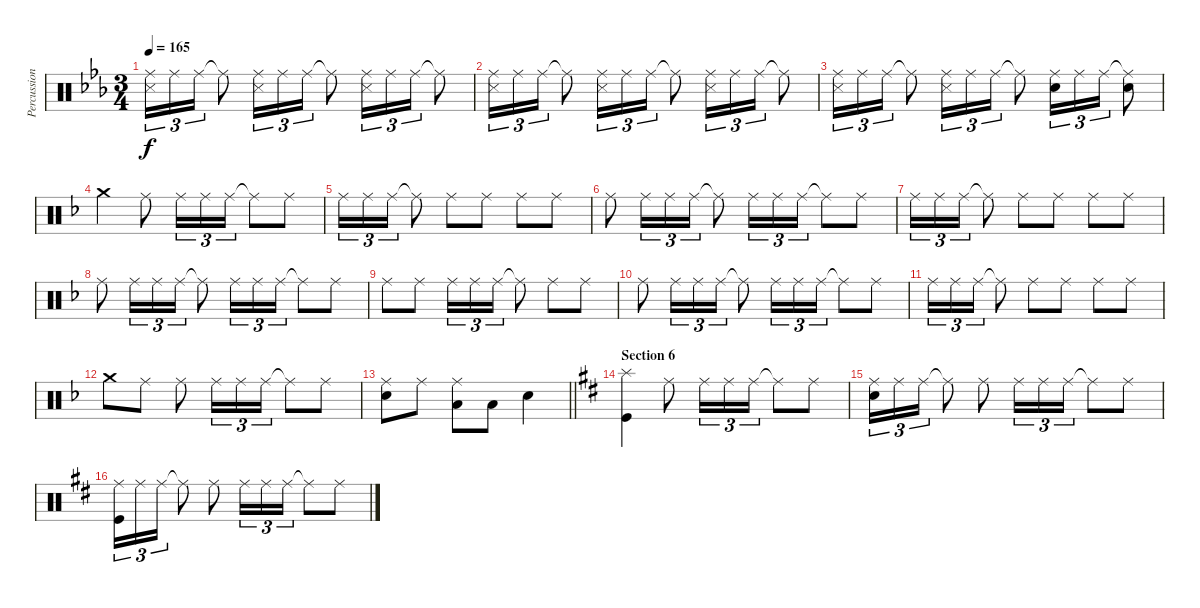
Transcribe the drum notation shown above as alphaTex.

\track ("Percussion" "Percussion") {instrument percussion}
\staff {score}
\articulation defaults
\ts (3 4)
\tempo 165
\clef neutral
\ks eb
("Ride (middle)" "Snare (side stick) 3").16{tu (3 2) dy f} "Ride (middle)".16{tu (3 2)} "Ride (middle)".16{tu (3 2)} "Ride (middle)"{t}.8 ("Ride (middle)" "Snare (side stick) 3").16{tu (3 2)} "Ride (middle)".16{tu (3 2)} "Ride (middle)".16{tu (3 2)} "Ride (middle)"{t}.8 ("Ride (middle)" "Snare (side stick) 3").16{tu (3 2)} "Ride (middle)".16{tu (3 2)} "Ride (middle)".16{tu (3 2)} "Ride (middle)"{t}.8 |
("Ride (middle)" "Snare (side stick) 3").16{tu (3 2)} "Ride (middle)".16{tu (3 2)} "Ride (middle)".16{tu (3 2)} "Ride (middle)"{t}.8 ("Ride (middle)" "Snare (side stick) 3").16{tu (3 2)} "Ride (middle)".16{tu (3 2)} "Ride (middle)".16{tu (3 2)} "Ride (middle)"{t}.8 ("Ride (middle)" "Snare (side stick) 3").16{tu (3 2)} "Ride (middle)".16{tu (3 2)} "Ride (middle)".16{tu (3 2)} "Ride (middle)"{t}.8 |
("Ride (middle)" "Snare (side stick) 3").16{tu (3 2)} "Ride (middle)".16{tu (3 2)} "Ride (middle)".16{tu (3 2)} "Ride (middle)"{t}.8 ("Ride (middle)" "Snare (side stick) 3").16{tu (3 2)} "Ride (middle)".16{tu (3 2)} "Ride (middle)".16{tu (3 2)} "Ride (middle)"{t}.8 ("Ride (middle)" "Snare (hit) 2").16{tu (3 2)} "Ride (middle)".16{tu (3 2)} "Ride (middle)".16{tu (3 2)} ("Ride (middle)"{t} "Snare (hit) 2").8 |
\ks f "Crash medium (hit)".4 "Ride (middle)".8 "Ride (middle)".16{tu (3 2)} "Ride (middle)".16{tu (3 2)} "Ride (middle)".16{tu (3 2)} "Ride (middle)"{t}.8 "Ride (middle)".8
|
"Ride (middle)".16{tu (3 2)} "Ride (middle)".16{tu (3 2)} "Ride (middle)".16{tu (3 2)} "Ride (middle)"{t}.8 "Ride (middle)".8 "Ride (middle)".8 "Ride (middle)".8 "Ride (middle)".8 |
"Ride (middle)".8 "Ride (middle)".16{tu (3 2)} "Ride (middle)".16{tu (3 2)} "Ride (middle)".16{tu (3 2)} "Ride (middle)"{t}.8 "Ride (middle)".16{tu (3 2)} "Ride (middle)".16{tu (3 2)} "Ride (middle)".16{tu (3 2)} "Ride (middle)"{t}.8 "Ride (middle)".8 |
"Ride (middle)".16{tu (3 2)} "Ride (middle)".16{tu (3 2)} "Ride (middle)".16{tu (3 2)} "Ride (middle)"{t}.8 "Ride (middle)".8 "Ride (middle)".8 "Ride (middle)".8 "Ride (middle)".8 |
"Ride (middle)".8 "Ride (middle)".16{tu (3 2)} "Ride (middle)".16{tu (3 2)} "Ride (middle)".16{tu (3 2)} "Ride (middle)"{t}.8 "Ride (middle)".16{tu (3 2)} "Ride (middle)".16{tu (3 2)} "Ride (middle)".16{tu (3 2)} "Ride (middle)"{t}.8 "Ride (middle)".8 |
"Ride (middle)".8 "Ride (middle)".8 "Ride (middle)".16{tu (3 2)} "Ride (middle)".16{tu (3 2)} "Ride (middle)".16{tu (3 2)} "Ride (middle)"{t}.8 "Ride (middle)".8 "Ride (middle)".8 |
"Ride (middle)".8 "Ride (middle)".16{tu (3 2)} "Ride (middle)".16{tu (3 2)} "Ride (middle)".16{tu (3 2)} "Ride (middle)"{t}.8 "Ride (middle)".16{tu (3 2)} "Ride (middle)".16{tu (3 2)} "Ride (middle)".16{tu (3 2)} "Ride (middle)"{t}.8 "Ride (middle)".8 |
"Ride (middle)".16{tu (3 2)} "Ride (middle)".16{tu (3 2)} "Ride (middle)".16{tu (3 2)} "Ride (middle)"{t}.8 "Ride (middle)".8 "Ride (middle)".8 "Ride (middle)".8 "Ride (middle)".8 |
"Crash medium (hit)".8 "Ride (middle)".8 "Ride (middle)".8 "Ride (middle)".16{tu (3 2)} "Ride (middle)".16{tu (3 2)} "Ride (middle)".16{tu (3 2)} "Ride (middle)"{t}.8 "Ride (middle)".8 |
\barLineRight lightlight
("Ride (middle)" "Snare (hit) 2").8 "Ride (middle)".8 ("Ride (middle)" "Low Tom (hit)").8 "Low Tom (hit)".8 "Snare (hit) 2".4 |
\section ("" "Section 6")
\ks d
("Splash (hit)" "Kick (hit)").4 "Ride (middle)".8 "Ride (middle)".16{tu (3 2)} "Ride (middle)".16{tu (3 2)} "Ride (middle)".16{tu (3 2)} "Ride (middle)"{t}.8 "Ride (middle)".8 |
("Ride (middle)" "Snare (hit) 2").16{tu (3 2)} "Ride (middle)".16{tu (3 2)} "Ride (middle)".16{tu (3 2)} "Ride (middle)"{t}.8 "Ride (middle)".8 "Ride (middle)".16{tu (3 2)} "Ride (middle)".16{tu (3 2)} "Ride (middle)".16{tu (3 2)} "Ride (middle)"{t}.8 "Ride (middle)".8 |
("Ride (middle)" "Kick (hit)").16{tu (3 2)} "Ride (middle)".16{tu (3 2)} "Ride (middle)".16{tu (3 2)} "Ride (middle)"{t}.8 "Ride (middle)".8 "Ride (middle)".16{tu (3 2)} "Ride (middle)".16{tu (3 2)} "Ride (middle)".16{tu (3 2)} "Ride (middle)"{t}.8 "Ride (middle)".8
